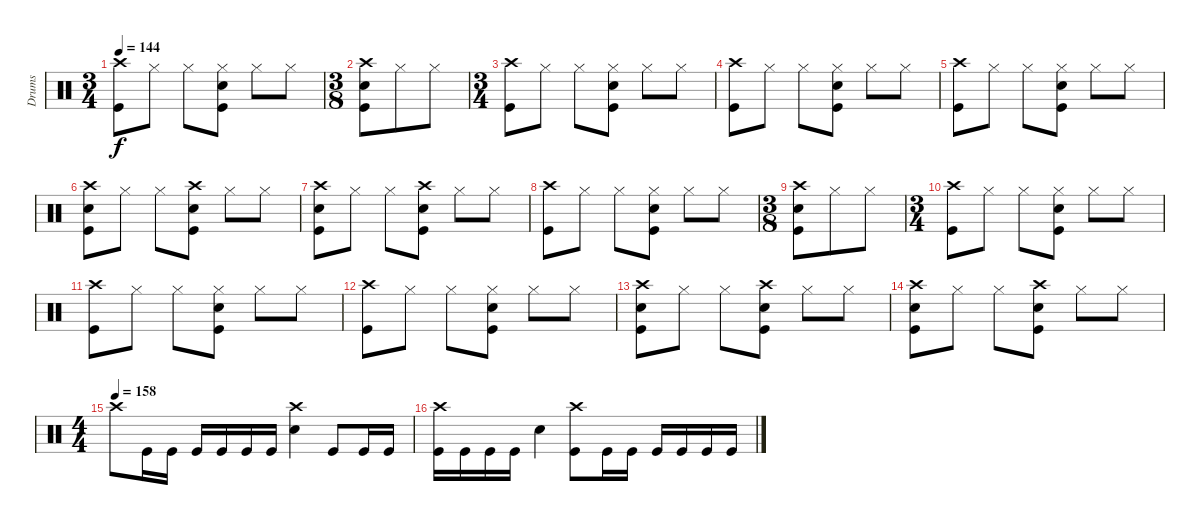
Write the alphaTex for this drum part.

\track ("Drums" "Drums") {instrument percussion}
\staff {score}
\articulation defaults
\ts (3 4)
\tempo 144
\clef neutral
\ks c
("Crash high (hit)" "Kick (hit)").8{dy f} "Hi-Hat (closed)".8 "Hi-Hat (closed)".8 ("Hi-Hat (closed)" "Electric Snare (hit)" "Kick (hit)").8 "Hi-Hat (closed)".8 "Hi-Hat (closed)".8 |
\ts (3 8)
("Crash high (hit)" "Electric Snare (hit)" "Kick (hit)").8 "Hi-Hat (closed)".8 "Hi-Hat (closed)".8 |
\ts (3 4)
("Crash high (hit)" "Kick (hit)").8 "Hi-Hat (closed)".8 "Hi-Hat (closed)".8 ("Hi-Hat (closed)" "Electric Snare (hit)" "Kick (hit)").8 "Hi-Hat (closed)".8 "Hi-Hat (closed)".8 |
("Crash high (hit)" "Kick (hit)").8 "Hi-Hat (closed)".8 "Hi-Hat (closed)".8 ("Hi-Hat (closed)" "Electric Snare (hit)" "Kick (hit)").8 "Hi-Hat (closed)".8 "Hi-Hat (closed)".8 |
("Crash high (hit)" "Kick (hit)").8 "Hi-Hat (closed)".8 "Hi-Hat (closed)".8 ("Hi-Hat (closed)" "Electric Snare (hit)" "Kick (hit)").8 "Hi-Hat (closed)".8 "Hi-Hat (closed)".8 |
("Crash high (hit)" "Electric Snare (hit)" "Kick (hit)").8 "Hi-Hat (closed)".8 "Hi-Hat (closed)".8 ("Crash high (hit)" "Electric Snare (hit)" "Kick (hit)").8 "Hi-Hat (closed)".8 "Hi-Hat (closed)".8 |
("Crash high (hit)" "Electric Snare (hit)" "Kick (hit)").8 "Hi-Hat (closed)".8 "Hi-Hat (closed)".8 ("Crash high (hit)" "Electric Snare (hit)" "Kick (hit)").8 "Hi-Hat (closed)".8 "Hi-Hat (closed)".8 |
("Crash high (hit)" "Kick (hit)").8 "Hi-Hat (closed)".8 "Hi-Hat (closed)".8 ("Hi-Hat (closed)" "Electric Snare (hit)" "Kick (hit)").8 "Hi-Hat (closed)".8 "Hi-Hat (closed)".8 |
\ts (3 8)
("Crash high (hit)" "Electric Snare (hit)" "Kick (hit)").8 "Hi-Hat (closed)".8 "Hi-Hat (closed)".8 |
\ts (3 4)
("Crash high (hit)" "Kick (hit)").8 "Hi-Hat (closed)".8 "Hi-Hat (closed)".8 ("Hi-Hat (closed)" "Electric Snare (hit)" "Kick (hit)").8 "Hi-Hat (closed)".8 "Hi-Hat (closed)".8 |
("Crash high (hit)" "Kick (hit)").8 "Hi-Hat (closed)".8 "Hi-Hat (closed)".8 ("Hi-Hat (closed)" "Electric Snare (hit)" "Kick (hit)").8 "Hi-Hat (closed)".8 "Hi-Hat (closed)".8 |
("Crash high (hit)" "Kick (hit)").8 "Hi-Hat (closed)".8 "Hi-Hat (closed)".8 ("Hi-Hat (closed)" "Electric Snare (hit)" "Kick (hit)").8 "Hi-Hat (closed)".8 "Hi-Hat (closed)".8 |
("Crash high (hit)" "Electric Snare (hit)" "Kick (hit)").8 "Hi-Hat (closed)".8 "Hi-Hat (closed)".8 ("Crash high (hit)" "Electric Snare (hit)" "Kick (hit)").8 "Hi-Hat (closed)".8 "Hi-Hat (closed)".8 |
("Crash high (hit)" "Electric Snare (hit)" "Kick (hit)").8 "Hi-Hat (closed)".8 "Hi-Hat (closed)".8 ("Crash high (hit)" "Electric Snare (hit)" "Kick (hit)").8 "Hi-Hat (closed)".8 "Hi-Hat (closed)".8 |
\ts (4 4)
\tempo (158)
"Crash high (hit)".8 "Kick (hit)".16 "Kick (hit)".16 "Kick (hit)".16 "Kick (hit)".16 "Kick (hit)".16 "Kick (hit)".16 ("Crash high (hit)" "Electric Snare (hit)").4 "Kick (hit)".8 "Kick (hit)".16 "Kick (hit)".16 |
("Crash high (hit)" "Kick (hit)").16 "Kick (hit)".16 "Kick (hit)".16 "Kick (hit)".16 "Electric Snare (hit)".4 ("Crash high (hit)" "Kick (hit)").8 "Kick (hit)".16 "Kick (hit)".16 "Kick (hit)".16 "Kick (hit)".16 "Kick (hit)".16 "Kick (hit)".16
